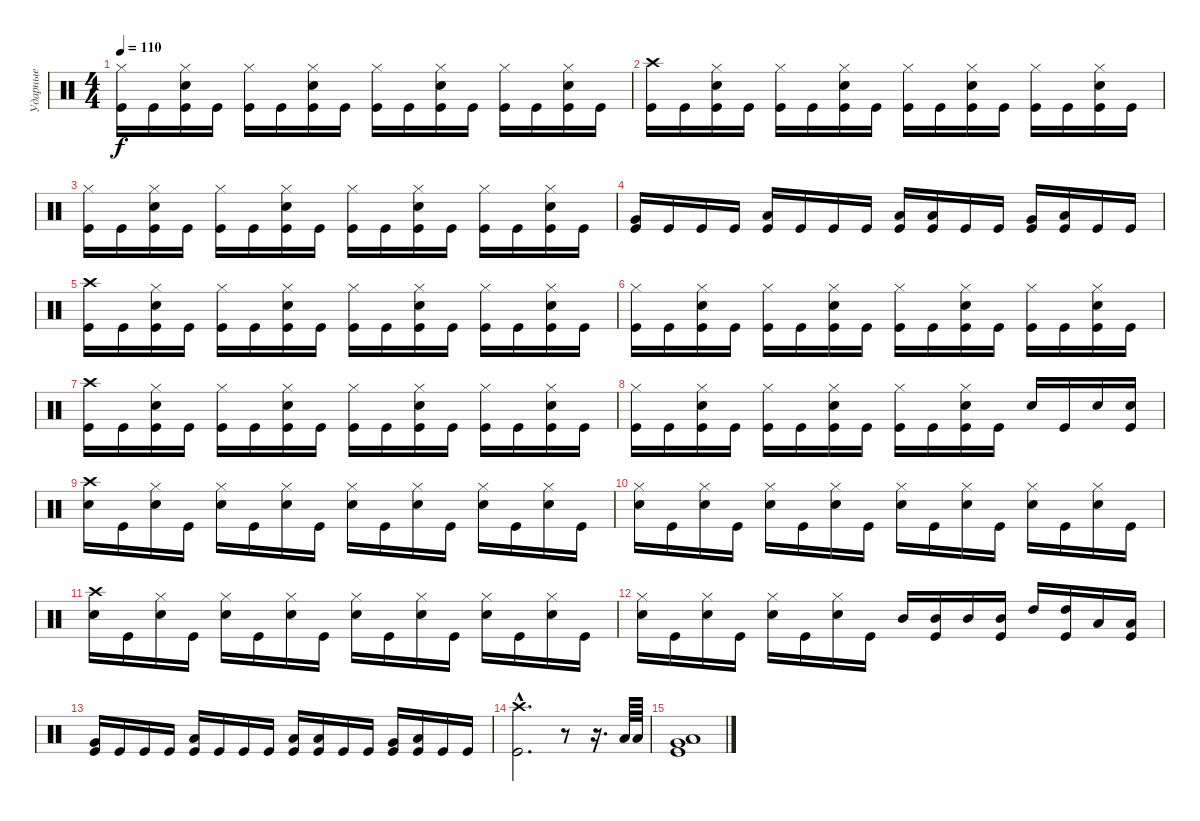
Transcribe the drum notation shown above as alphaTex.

\track ("Ударные" "Ударные") {instrument percussion}
\staff {score}
\articulation defaults
\ts (4 4)
\tempo 110
\clef neutral
\ks c
("Hi-Hat (closed)" "Kick (hit)").16{dy f} "Kick (hit)".16 ("Hi-Hat (closed)" "Electric Snare (hit)" "Kick (hit)").16 "Kick (hit)".16 ("Hi-Hat (closed)" "Kick (hit)").16 "Kick (hit)".16 ("Hi-Hat (closed)" "Electric Snare (hit)" "Kick (hit)").16 "Kick (hit)".16 ("Hi-Hat (closed)" "Kick (hit)").16 "Kick (hit)".16 ("Hi-Hat (closed)" "Electric Snare (hit)" "Kick (hit)").16 "Kick (hit)".16 ("Hi-Hat (closed)" "Kick (hit)").16 "Kick (hit)".16 ("Hi-Hat (closed)" "Electric Snare (hit)" "Kick (hit)").16 "Kick (hit)".16 |
("Crash high (hit)" "Kick (hit)").16 "Kick (hit)".16 ("Hi-Hat (closed)" "Electric Snare (hit)" "Kick (hit)").16 "Kick (hit)".16 ("Hi-Hat (closed)" "Kick (hit)").16 "Kick (hit)".16 ("Hi-Hat (closed)" "Electric Snare (hit)" "Kick (hit)").16 "Kick (hit)".16 ("Hi-Hat (closed)" "Kick (hit)").16 "Kick (hit)".16 ("Hi-Hat (closed)" "Electric Snare (hit)" "Kick (hit)").16 "Kick (hit)".16 ("Hi-Hat (closed)" "Kick (hit)").16 "Kick (hit)".16 ("Hi-Hat (closed)" "Electric Snare (hit)" "Kick (hit)").16 "Kick (hit)".16 |
("Hi-Hat (closed)" "Kick (hit)").16 "Kick (hit)".16 ("Hi-Hat (closed)" "Electric Snare (hit)" "Kick (hit)").16 "Kick (hit)".16 ("Hi-Hat (closed)" "Kick (hit)").16 "Kick (hit)".16 ("Hi-Hat (closed)" "Electric Snare (hit)" "Kick (hit)").16 "Kick (hit)".16 ("Hi-Hat (closed)" "Kick (hit)").16 "Kick (hit)".16 ("Hi-Hat (closed)" "Electric Snare (hit)" "Kick (hit)").16 "Kick (hit)".16 ("Hi-Hat (closed)" "Kick (hit)").16 "Kick (hit)".16 ("Hi-Hat (closed)" "Electric Snare (hit)" "Kick (hit)").16 "Kick (hit)".16 |
("Very Low Tom (hit)" "Kick (hit)").16 "Kick (hit)".16 "Kick (hit)".16 "Kick (hit)".16 ("Low Tom (hit)" "Kick (hit)").16 "Kick (hit)".16 "Kick (hit)".16 "Kick (hit)".16 ("Low Tom (hit)" "Kick (hit)").16 ("Low Tom (hit)" "Kick (hit)").16 "Kick (hit)".16 "Kick (hit)".16 ("Very Low Tom (hit)" "Kick (hit)").16 ("Low Tom (hit)" "Kick (hit)").16 "Kick (hit)".16 "Kick (hit)".16 |
("Crash high (hit)" "Kick (hit)").16 "Kick (hit)".16 ("Hi-Hat (closed)" "Electric Snare (hit)" "Kick (hit)").16 "Kick (hit)".16 ("Hi-Hat (closed)" "Kick (hit)").16 "Kick (hit)".16 ("Hi-Hat (closed)" "Electric Snare (hit)" "Kick (hit)").16 "Kick (hit)".16 ("Hi-Hat (closed)" "Kick (hit)").16 "Kick (hit)".16 ("Hi-Hat (closed)" "Electric Snare (hit)" "Kick (hit)").16 "Kick (hit)".16 ("Hi-Hat (closed)" "Kick (hit)").16 "Kick (hit)".16 ("Hi-Hat (closed)" "Electric Snare (hit)" "Kick (hit)").16 "Kick (hit)".16 |
("Hi-Hat (closed)" "Kick (hit)").16 "Kick (hit)".16 ("Hi-Hat (closed)" "Electric Snare (hit)" "Kick (hit)").16 "Kick (hit)".16 ("Hi-Hat (closed)" "Kick (hit)").16 "Kick (hit)".16 ("Hi-Hat (closed)" "Electric Snare (hit)" "Kick (hit)").16 "Kick (hit)".16 ("Hi-Hat (closed)" "Kick (hit)").16 "Kick (hit)".16 ("Hi-Hat (closed)" "Electric Snare (hit)" "Kick (hit)").16 "Kick (hit)".16 ("Hi-Hat (closed)" "Kick (hit)").16 "Kick (hit)".16 ("Hi-Hat (closed)" "Electric Snare (hit)" "Kick (hit)").16 "Kick (hit)".16 |
("Crash high (hit)" "Kick (hit)").16 "Kick (hit)".16 ("Hi-Hat (closed)" "Electric Snare (hit)" "Kick (hit)").16 "Kick (hit)".16 ("Hi-Hat (closed)" "Kick (hit)").16 "Kick (hit)".16 ("Hi-Hat (closed)" "Electric Snare (hit)" "Kick (hit)").16 "Kick (hit)".16 ("Hi-Hat (closed)" "Kick (hit)").16 "Kick (hit)".16 ("Hi-Hat (closed)" "Electric Snare (hit)" "Kick (hit)").16 "Kick (hit)".16 ("Hi-Hat (closed)" "Kick (hit)").16 "Kick (hit)".16 ("Hi-Hat (closed)" "Electric Snare (hit)" "Kick (hit)").16 "Kick (hit)".16 |
("Hi-Hat (closed)" "Kick (hit)").16 "Kick (hit)".16 ("Hi-Hat (closed)" "Electric Snare (hit)" "Kick (hit)").16 "Kick (hit)".16 ("Hi-Hat (closed)" "Kick (hit)").16 "Kick (hit)".16 ("Hi-Hat (closed)" "Electric Snare (hit)" "Kick (hit)").16 "Kick (hit)".16 ("Hi-Hat (closed)" "Kick (hit)").16 "Kick (hit)".16 ("Hi-Hat (closed)" "Electric Snare (hit)" "Kick (hit)").16 "Kick (hit)".16 "Electric Snare (hit)".16 "Kick (hit)".16 "Electric Snare (hit)".16 ("Electric Snare (hit)" "Kick (hit)").16 |
("Crash high (hit)" "Electric Snare (hit)").16 "Kick (hit)".16 ("Hi-Hat (closed)" "Electric Snare (hit)").16 "Kick (hit)".16 ("Hi-Hat (closed)" "Electric Snare (hit)").16 "Kick (hit)".16 ("Hi-Hat (closed)" "Electric Snare (hit)").16 "Kick (hit)".16 ("Hi-Hat (closed)" "Electric Snare (hit)").16 "Kick (hit)".16 ("Hi-Hat (closed)" "Electric Snare (hit)").16 "Kick (hit)".16 ("Hi-Hat (closed)" "Electric Snare (hit)").16 "Kick (hit)".16 ("Hi-Hat (closed)" "Electric Snare (hit)").16 "Kick (hit)".16 |
("Hi-Hat (closed)" "Electric Snare (hit)").16 "Kick (hit)".16 ("Hi-Hat (closed)" "Electric Snare (hit)").16 "Kick (hit)".16 ("Hi-Hat (closed)" "Electric Snare (hit)").16 "Kick (hit)".16 ("Hi-Hat (closed)" "Electric Snare (hit)").16 "Kick (hit)".16 ("Hi-Hat (closed)" "Electric Snare (hit)").16 "Kick (hit)".16 ("Hi-Hat (closed)" "Electric Snare (hit)").16 "Kick (hit)".16 ("Hi-Hat (closed)" "Electric Snare (hit)").16 "Kick (hit)".16 ("Hi-Hat (closed)" "Electric Snare (hit)").16 "Kick (hit)".16 |
("Crash high (hit)" "Electric Snare (hit)").16 "Kick (hit)".16 ("Hi-Hat (closed)" "Electric Snare (hit)").16 "Kick (hit)".16 ("Hi-Hat (closed)" "Electric Snare (hit)").16 "Kick (hit)".16 ("Hi-Hat (closed)" "Electric Snare (hit)").16 "Kick (hit)".16 ("Hi-Hat (closed)" "Electric Snare (hit)").16 "Kick (hit)".16 ("Hi-Hat (closed)" "Electric Snare (hit)").16 "Kick (hit)".16 ("Hi-Hat (closed)" "Electric Snare (hit)").16 "Kick (hit)".16 ("Hi-Hat (closed)" "Electric Snare (hit)").16 "Kick (hit)".16 |
("Hi-Hat (closed)" "Electric Snare (hit)").16 "Kick (hit)".16 ("Hi-Hat (closed)" "Electric Snare (hit)").16 "Kick (hit)".16 ("Hi-Hat (closed)" "Electric Snare (hit)").16 "Kick (hit)".16 ("Hi-Hat (closed)" "Electric Snare (hit)").16 "Kick (hit)".16 "Mid Tom (hit)".16 ("Mid Tom (hit)" "Kick (hit)").16 "Mid Tom (hit)".16 ("Mid Tom (hit)" "Kick (hit)").16 "High Tom (hit)".16 ("High Tom (hit)" "Kick (hit)").16 "Low Tom (hit)".16 ("Low Tom (hit)" "Kick (hit)").16 |
("Very Low Tom (hit)" "Kick (hit)").16 "Kick (hit)".16 "Kick (hit)".16 "Kick (hit)".16 ("Low Tom (hit)" "Kick (hit)").16 "Kick (hit)".16 "Kick (hit)".16 "Kick (hit)".16 ("Low Tom (hit)" "Kick (hit)").16 ("Low Tom (hit)" "Kick (hit)").16 "Kick (hit)".16 "Kick (hit)".16 ("Very Low Tom (hit)" "Kick (hit)").16 ("Low Tom (hit)" "Kick (hit)").16 "Kick (hit)".16 "Kick (hit)".16 |
("Crash high (hit)"{hac} "Kick (hit)"{hac}).2{d} r.8 r.16{d} "Low Tom (hit)".64 "Low Tom (hit)".64 |
("Low Tom (hit)" "Very Low Tom (hit)" "Kick (hit)").1
